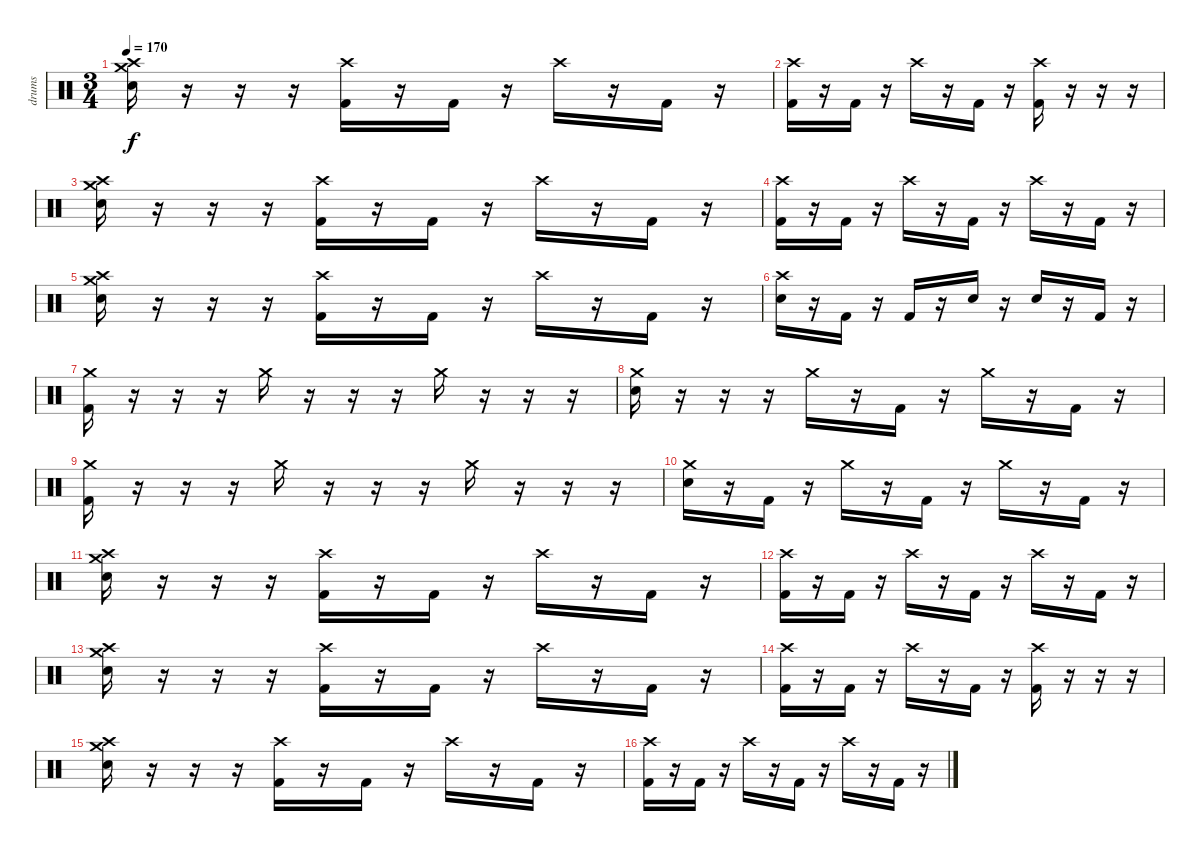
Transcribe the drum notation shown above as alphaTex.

\track ("drums" "drums") {instrument percussion}
\staff {score}
\articulation defaults
\ts (3 4)
\tempo 170
\clef neutral
\ks c
("Snare (hit) 2" "Crash high (hit)" "Crash medium (hit)").16{dy f} r.16 r.16 r.16 ("Crash high (hit)" "Kick (hit) 2").16 r.16 "Kick (hit) 2".16 r.16 "Crash high (hit)".16 r.16 "Kick (hit) 2".16 r.16 |
("Kick (hit) 2" "Crash high (hit)").16 r.16 "Kick (hit) 2".16 r.16 "Crash high (hit)".16 r.16 "Kick (hit) 2".16 r.16 ("Crash high (hit)" "Kick (hit) 2").16 r.16 r.16 r.16 |
("Snare (hit) 2" "Crash high (hit)" "Crash medium (hit)").16 r.16 r.16 r.16 ("Crash high (hit)" "Kick (hit) 2").16 r.16 "Kick (hit) 2".16 r.16 "Crash high (hit)".16 r.16 "Kick (hit) 2".16 r.16 |
("Kick (hit) 2" "Crash high (hit)").16 r.16 "Kick (hit) 2".16 r.16 "Crash high (hit)".16 r.16 "Kick (hit) 2".16 r.16 "Crash high (hit)".16 r.16 "Kick (hit) 2".16 r.16 |
("Snare (hit) 2" "Crash high (hit)" "Crash medium (hit)").16 r.16 r.16 r.16 ("Crash high (hit)" "Kick (hit) 2").16 r.16 "Kick (hit) 2".16 r.16 "Crash high (hit)".16 r.16 "Kick (hit) 2".16 r.16 |
("Snare (hit) 2" "Crash high (hit)").16 r.16 "Kick (hit) 2".16 r.16 "Kick (hit) 2".16 r.16 "Snare (hit) 2".16 r.16 "Snare (hit) 2".16 r.16 "Kick (hit) 2".16 r.16 |
("Kick (hit) 2" "Crash medium (hit)").16 r.16 r.16 r.16 "Crash medium (hit)".16 r.16 r.16 r.16 "Crash medium (hit)".16 r.16 r.16 r.16 |
("Snare (hit) 2" "Crash medium (hit)").16 r.16 r.16 r.16 "Crash medium (hit)".16 r.16 "Kick (hit) 2".16 r.16 "Crash medium (hit)".16 r.16 "Kick (hit) 2".16 r.16 |
("Kick (hit) 2" "Crash medium (hit)").16 r.16 r.16 r.16 "Crash medium (hit)".16 r.16 r.16 r.16 "Crash medium (hit)".16 r.16 r.16 r.16 |
("Snare (hit) 2" "Crash medium (hit)").16 r.16 "Kick (hit) 2".16 r.16 "Crash medium (hit)".16 r.16 "Kick (hit) 2".16 r.16 "Crash medium (hit)".16 r.16 "Kick (hit) 2".16 r.16 |
("Snare (hit) 2" "Crash high (hit)" "Crash medium (hit)").16 r.16 r.16 r.16 ("Crash high (hit)" "Kick (hit) 2").16 r.16 "Kick (hit) 2".16 r.16 "Crash high (hit)".16 r.16 "Kick (hit) 2".16 r.16 |
("Kick (hit) 2" "Crash high (hit)").16 r.16 "Kick (hit) 2".16 r.16 "Crash high (hit)".16 r.16 "Kick (hit) 2".16 r.16 "Crash high (hit)".16 r.16 "Kick (hit) 2".16 r.16 |
("Snare (hit) 2" "Crash high (hit)" "Crash medium (hit)").16 r.16 r.16 r.16 ("Crash high (hit)" "Kick (hit) 2").16 r.16 "Kick (hit) 2".16 r.16 "Crash high (hit)".16 r.16 "Kick (hit) 2".16 r.16 |
("Kick (hit) 2" "Crash high (hit)").16 r.16 "Kick (hit) 2".16 r.16 "Crash high (hit)".16 r.16 "Kick (hit) 2".16 r.16 ("Crash high (hit)" "Kick (hit) 2").16 r.16 r.16 r.16 |
("Snare (hit) 2" "Crash high (hit)" "Crash medium (hit)").16 r.16 r.16 r.16 ("Crash high (hit)" "Kick (hit) 2").16 r.16 "Kick (hit) 2".16 r.16 "Crash high (hit)".16 r.16 "Kick (hit) 2".16 r.16 |
("Kick (hit) 2" "Crash high (hit)").16 r.16 "Kick (hit) 2".16 r.16 "Crash high (hit)".16 r.16 "Kick (hit) 2".16 r.16 "Crash high (hit)".16 r.16 "Kick (hit) 2".16 r.16
